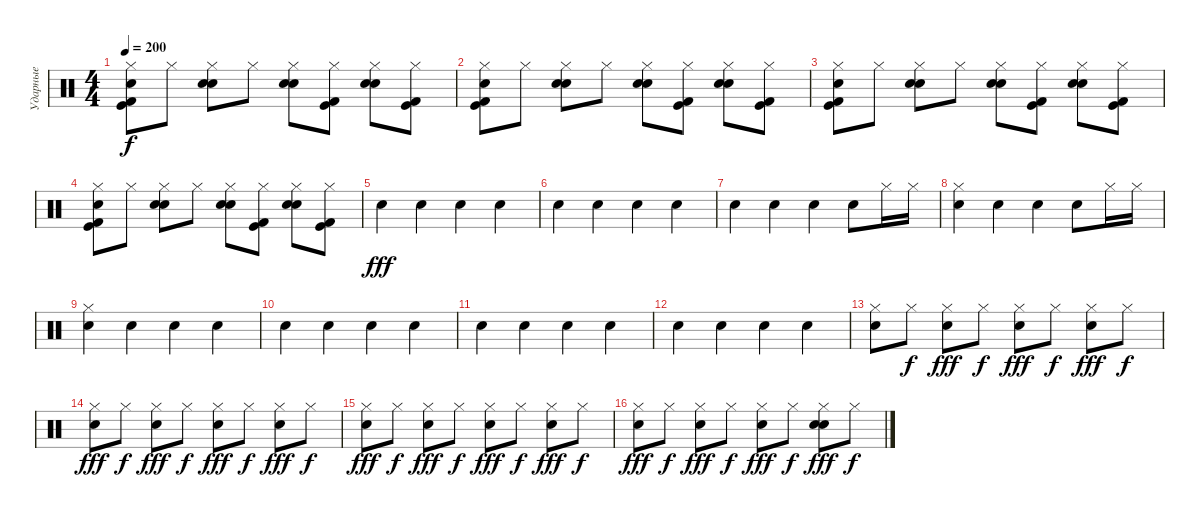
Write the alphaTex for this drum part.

\track ("Ударные" "Ударные") {instrument percussion}
\staff {score}
\articulation defaults
\ts (4 4)
\tempo 200
\clef neutral
\ks c
("Hi-Hat (closed)" "Hand Clap (hit)" "Kick (hit) 2" "Kick (hit)").8{dy f} "Hi-Hat (closed)".8 ("Hi-Hat (closed)" "Hand Clap (hit)" "Electric Snare (hit)").8 "Hi-Hat (closed)".8 ("Hi-Hat (closed)" "Hand Clap (hit)" "Electric Snare (hit)").8 ("Hi-Hat (closed)" "Kick (hit) 2" "Kick (hit)").8 ("Hi-Hat (closed)" "Hand Clap (hit)" "Electric Snare (hit)").8 ("Hi-Hat (closed)" "Kick (hit) 2" "Kick (hit)").8 |
("Hi-Hat (closed)" "Hand Clap (hit)" "Kick (hit) 2" "Kick (hit)").8 "Hi-Hat (closed)".8 ("Hi-Hat (closed)" "Hand Clap (hit)" "Electric Snare (hit)").8 "Hi-Hat (closed)".8 ("Hi-Hat (closed)" "Hand Clap (hit)" "Electric Snare (hit)").8 ("Hi-Hat (closed)" "Kick (hit) 2" "Kick (hit)").8 ("Hi-Hat (closed)" "Hand Clap (hit)" "Electric Snare (hit)").8 ("Hi-Hat (closed)" "Kick (hit) 2" "Kick (hit)").8 |
("Hi-Hat (closed)" "Hand Clap (hit)" "Kick (hit) 2" "Kick (hit)").8 "Hi-Hat (closed)".8 ("Hi-Hat (closed)" "Hand Clap (hit)" "Electric Snare (hit)").8 "Hi-Hat (closed)".8 ("Hi-Hat (closed)" "Hand Clap (hit)" "Electric Snare (hit)").8 ("Hi-Hat (closed)" "Kick (hit) 2" "Kick (hit)").8 ("Hi-Hat (closed)" "Hand Clap (hit)" "Electric Snare (hit)").8 ("Hi-Hat (closed)" "Kick (hit) 2" "Kick (hit)").8 |
("Hi-Hat (closed)" "Hand Clap (hit)" "Kick (hit) 2" "Kick (hit)").8 "Hi-Hat (closed)".8 ("Hi-Hat (closed)" "Hand Clap (hit)" "Electric Snare (hit)").8 "Hi-Hat (closed)".8 ("Hi-Hat (closed)" "Hand Clap (hit)" "Electric Snare (hit)").8 ("Hi-Hat (closed)" "Kick (hit) 2" "Kick (hit)").8 ("Hi-Hat (closed)" "Hand Clap (hit)" "Electric Snare (hit)").8 ("Hi-Hat (closed)" "Kick (hit) 2" "Kick (hit)").8 |
"Hand Clap (hit)".4{dy fff} "Hand Clap (hit)".4 "Hand Clap (hit)".4 "Hand Clap (hit)".4 |
"Hand Clap (hit)".4 "Hand Clap (hit)".4 "Hand Clap (hit)".4 "Hand Clap (hit)".4 |
"Hand Clap (hit)".4 "Hand Clap (hit)".4 "Hand Clap (hit)".4 "Hand Clap (hit)".8 "Hi-Hat (closed)".16 "Hi-Hat (closed)".16 |
("Hi-Hat (closed)" "Hand Clap (hit)").4 "Hand Clap (hit)".4 "Hand Clap (hit)".4 "Hand Clap (hit)".8 "Hi-Hat (closed)".16 "Hi-Hat (closed)".16 |
("Hi-Hat (closed)" "Hand Clap (hit)").4 "Hand Clap (hit)".4 "Hand Clap (hit)".4 "Hand Clap (hit)".4 |
"Hand Clap (hit)".4 "Hand Clap (hit)".4 "Hand Clap (hit)".4 "Hand Clap (hit)".4 |
"Hand Clap (hit)".4 "Hand Clap (hit)".4 "Hand Clap (hit)".4 "Hand Clap (hit)".4 |
"Hand Clap (hit)".4 "Hand Clap (hit)".4 "Hand Clap (hit)".4 "Hand Clap (hit)".4 |
("Hi-Hat (closed)" "Hand Clap (hit)").8 "Hi-Hat (closed)".8{dy f} ("Hi-Hat (closed)" "Hand Clap (hit)").8{dy fff} "Hi-Hat (closed)".8{dy f} ("Hi-Hat (closed)" "Hand Clap (hit)").8{dy fff} "Hi-Hat (closed)".8{dy f} ("Hi-Hat (closed)" "Hand Clap (hit)").8{dy fff} "Hi-Hat (closed)".8{dy f} |
("Hi-Hat (closed)" "Hand Clap (hit)").8{dy fff} "Hi-Hat (closed)".8{dy f} ("Hi-Hat (closed)" "Hand Clap (hit)").8{dy fff} "Hi-Hat (closed)".8{dy f} ("Hi-Hat (closed)" "Hand Clap (hit)").8{dy fff} "Hi-Hat (closed)".8{dy f} ("Hi-Hat (closed)" "Hand Clap (hit)").8{dy fff} "Hi-Hat (closed)".8{dy f} |
("Hi-Hat (closed)" "Hand Clap (hit)").8{dy fff} "Hi-Hat (closed)".8{dy f} ("Hi-Hat (closed)" "Hand Clap (hit)").8{dy fff} "Hi-Hat (closed)".8{dy f} ("Hi-Hat (closed)" "Hand Clap (hit)").8{dy fff} "Hi-Hat (closed)".8{dy f} ("Hi-Hat (closed)" "Hand Clap (hit)").8{dy fff} "Hi-Hat (closed)".8{dy f} |
("Hi-Hat (closed)" "Hand Clap (hit)").8{dy fff} "Hi-Hat (closed)".8{dy f} ("Hi-Hat (closed)" "Hand Clap (hit)").8{dy fff} "Hi-Hat (closed)".8{dy f} ("Hi-Hat (closed)" "Hand Clap (hit)").8{dy fff} "Hi-Hat (closed)".8{dy f} ("Hi-Hat (closed)" "Electric Snare (hit)" "Hand Clap (hit)").8{dy fff} "Hi-Hat (closed)".8{dy f}
